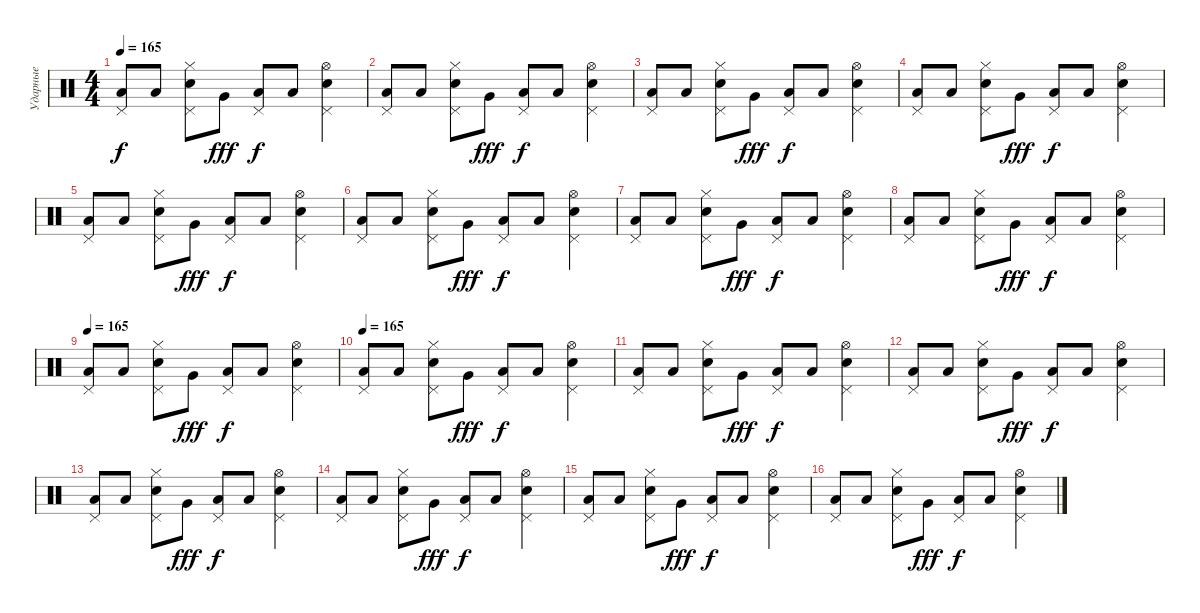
\track ("Ударные" "Ударные") {instrument percussion}
\staff {score}
\articulation defaults
\ts (4 4)
\tempo 165
\clef neutral
\ks c
("Pedal Hi-Hat (hit)" "Low Floor Tom (hit)").8{dy f} "Low Floor Tom (hit)".8 ("Pedal Hi-Hat (hit)" "Electric Snare (hit)" "Hi-Hat (closed)").8 "Very Low Tom (hit)".8{dy fff} ("Pedal Hi-Hat (hit)" "Low Floor Tom (hit)").8{dy f} "Low Floor Tom (hit)".8 ("Pedal Hi-Hat (hit)" "Electric Snare (hit)" "Hi-Hat (open)").4 |
("Pedal Hi-Hat (hit)" "Low Floor Tom (hit)").8 "Low Floor Tom (hit)".8 ("Pedal Hi-Hat (hit)" "Electric Snare (hit)" "Hi-Hat (closed)").8 "Very Low Tom (hit)".8{dy fff} ("Pedal Hi-Hat (hit)" "Low Floor Tom (hit)").8{dy f} "Low Floor Tom (hit)".8 ("Pedal Hi-Hat (hit)" "Electric Snare (hit)" "Hi-Hat (open)").4 |
("Pedal Hi-Hat (hit)" "Low Floor Tom (hit)").8 "Low Floor Tom (hit)".8 ("Pedal Hi-Hat (hit)" "Electric Snare (hit)" "Hi-Hat (closed)").8 "Very Low Tom (hit)".8{dy fff} ("Pedal Hi-Hat (hit)" "Low Floor Tom (hit)").8{dy f} "Low Floor Tom (hit)".8 ("Pedal Hi-Hat (hit)" "Electric Snare (hit)" "Hi-Hat (open)").4 |
("Pedal Hi-Hat (hit)" "Low Floor Tom (hit)").8 "Low Floor Tom (hit)".8 ("Pedal Hi-Hat (hit)" "Electric Snare (hit)" "Hi-Hat (closed)").8 "Very Low Tom (hit)".8{dy fff} ("Pedal Hi-Hat (hit)" "Low Floor Tom (hit)").8{dy f} "Low Floor Tom (hit)".8 ("Pedal Hi-Hat (hit)" "Electric Snare (hit)" "Hi-Hat (open)").4 |
("Pedal Hi-Hat (hit)" "Low Floor Tom (hit)").8 "Low Floor Tom (hit)".8 ("Pedal Hi-Hat (hit)" "Electric Snare (hit)" "Hi-Hat (closed)").8 "Very Low Tom (hit)".8{dy fff} ("Pedal Hi-Hat (hit)" "Low Floor Tom (hit)").8{dy f} "Low Floor Tom (hit)".8 ("Pedal Hi-Hat (hit)" "Electric Snare (hit)" "Hi-Hat (open)").4 |
("Pedal Hi-Hat (hit)" "Low Floor Tom (hit)").8 "Low Floor Tom (hit)".8 ("Pedal Hi-Hat (hit)" "Electric Snare (hit)" "Hi-Hat (closed)").8 "Very Low Tom (hit)".8{dy fff} ("Pedal Hi-Hat (hit)" "Low Floor Tom (hit)").8{dy f} "Low Floor Tom (hit)".8 ("Electric Snare (hit)" "Pedal Hi-Hat (hit)" "Hi-Hat (open)").4 |
("Pedal Hi-Hat (hit)" "Low Floor Tom (hit)").8 "Low Floor Tom (hit)".8 ("Pedal Hi-Hat (hit)" "Electric Snare (hit)" "Hi-Hat (closed)").8 "Very Low Tom (hit)".8{dy fff} ("Pedal Hi-Hat (hit)" "Low Floor Tom (hit)").8{dy f} "Low Floor Tom (hit)".8 ("Pedal Hi-Hat (hit)" "Electric Snare (hit)" "Hi-Hat (open)").4 |
("Pedal Hi-Hat (hit)" "Low Floor Tom (hit)").8 "Low Floor Tom (hit)".8 ("Pedal Hi-Hat (hit)" "Electric Snare (hit)" "Hi-Hat (closed)").8 "Very Low Tom (hit)".8{dy fff} ("Pedal Hi-Hat (hit)" "Low Floor Tom (hit)").8{dy f} "Low Floor Tom (hit)".8 ("Pedal Hi-Hat (hit)" "Electric Snare (hit)" "Hi-Hat (open)").4 |
\tempo 165
("Pedal Hi-Hat (hit)" "Low Floor Tom (hit)").8 "Low Floor Tom (hit)".8 ("Pedal Hi-Hat (hit)" "Electric Snare (hit)" "Hi-Hat (closed)").8 "Very Low Tom (hit)".8{dy fff} ("Pedal Hi-Hat (hit)" "Low Floor Tom (hit)").8{dy f} "Low Floor Tom (hit)".8 ("Pedal Hi-Hat (hit)" "Electric Snare (hit)" "Hi-Hat (open)").4 |
\tempo 165
("Pedal Hi-Hat (hit)" "Low Floor Tom (hit)").8 "Low Floor Tom (hit)".8 ("Pedal Hi-Hat (hit)" "Electric Snare (hit)" "Hi-Hat (closed)").8 "Very Low Tom (hit)".8{dy fff} ("Pedal Hi-Hat (hit)" "Low Floor Tom (hit)").8{dy f} "Low Floor Tom (hit)".8 ("Electric Snare (hit)" "Pedal Hi-Hat (hit)" "Hi-Hat (open)").4 |
("Pedal Hi-Hat (hit)" "Low Floor Tom (hit)").8 "Low Floor Tom (hit)".8 ("Pedal Hi-Hat (hit)" "Electric Snare (hit)" "Hi-Hat (closed)").8 "Very Low Tom (hit)".8{dy fff} ("Pedal Hi-Hat (hit)" "Low Floor Tom (hit)").8{dy f} "Low Floor Tom (hit)".8 ("Electric Snare (hit)" "Pedal Hi-Hat (hit)" "Hi-Hat (open)").4 |
("Pedal Hi-Hat (hit)" "Low Floor Tom (hit)").8 "Low Floor Tom (hit)".8 ("Pedal Hi-Hat (hit)" "Electric Snare (hit)" "Hi-Hat (closed)").8 "Very Low Tom (hit)".8{dy fff} ("Pedal Hi-Hat (hit)" "Low Floor Tom (hit)").8{dy f} "Low Floor Tom (hit)".8 ("Electric Snare (hit)" "Pedal Hi-Hat (hit)" "Hi-Hat (open)").4 |
("Pedal Hi-Hat (hit)" "Low Floor Tom (hit)").8 "Low Floor Tom (hit)".8 ("Pedal Hi-Hat (hit)" "Electric Snare (hit)" "Hi-Hat (closed)").8 "Very Low Tom (hit)".8{dy fff} ("Pedal Hi-Hat (hit)" "Low Floor Tom (hit)").8{dy f} "Low Floor Tom (hit)".8 ("Pedal Hi-Hat (hit)" "Electric Snare (hit)" "Hi-Hat (open)").4 |
("Pedal Hi-Hat (hit)" "Low Floor Tom (hit)").8 "Low Floor Tom (hit)".8 ("Pedal Hi-Hat (hit)" "Electric Snare (hit)" "Hi-Hat (closed)").8 "Very Low Tom (hit)".8{dy fff} ("Pedal Hi-Hat (hit)" "Low Floor Tom (hit)").8{dy f} "Low Floor Tom (hit)".8 ("Electric Snare (hit)" "Pedal Hi-Hat (hit)" "Hi-Hat (open)").4 |
("Pedal Hi-Hat (hit)" "Low Floor Tom (hit)").8 "Low Floor Tom (hit)".8 ("Pedal Hi-Hat (hit)" "Electric Snare (hit)" "Hi-Hat (closed)").8 "Very Low Tom (hit)".8{dy fff} ("Pedal Hi-Hat (hit)" "Low Floor Tom (hit)").8{dy f} "Low Floor Tom (hit)".8 ("Electric Snare (hit)" "Pedal Hi-Hat (hit)" "Hi-Hat (open)").4 |
("Pedal Hi-Hat (hit)" "Low Floor Tom (hit)").8 "Low Floor Tom (hit)".8 ("Pedal Hi-Hat (hit)" "Electric Snare (hit)" "Hi-Hat (closed)").8 "Very Low Tom (hit)".8{dy fff} ("Pedal Hi-Hat (hit)" "Low Floor Tom (hit)").8{dy f} "Low Floor Tom (hit)".8 ("Electric Snare (hit)" "Pedal Hi-Hat (hit)" "Hi-Hat (open)").4
